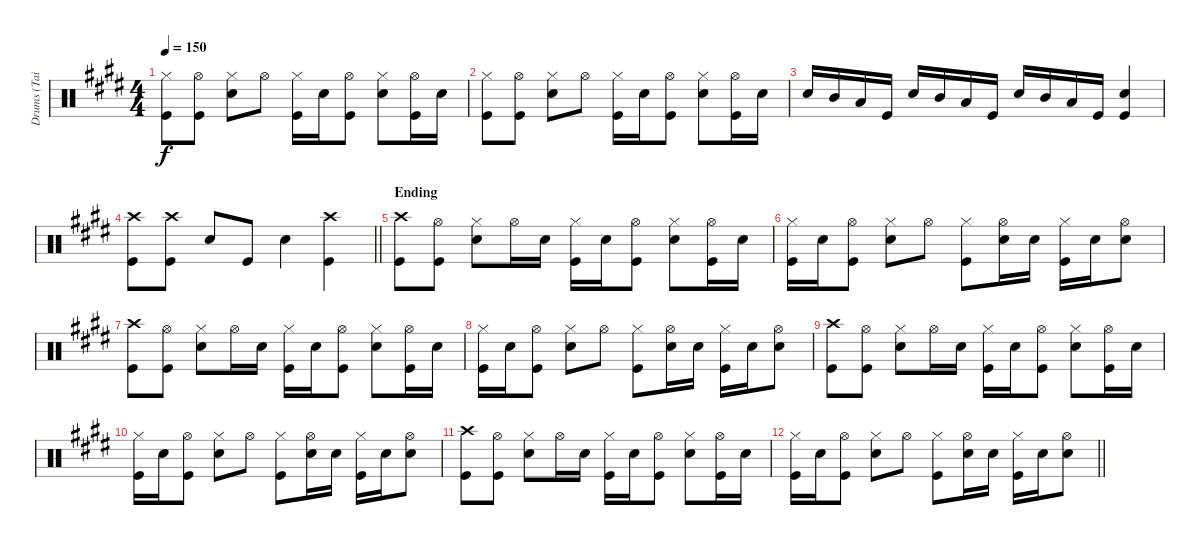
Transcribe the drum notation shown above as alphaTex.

\track ("Drums (Tainaka Ritsu)" "Drums (Tai") {instrument percussion}
\staff {score}
\articulation defaults
\ts (4 4)
\tempo 150
\clef neutral
\ks e
("Hi-Hat (closed)" "Kick (hit)").8{dy f} ("Hi-Hat (open)" "Kick (hit)").8 ("Hi-Hat (closed)" "Snare (hit) 2").8 "Hi-Hat (open)".8 ("Hi-Hat (closed)" "Kick (hit)").16 "Snare (hit) 2".16 ("Hi-Hat (open)" "Kick (hit)").8 ("Hi-Hat (closed)" "Snare (hit) 2").8 ("Hi-Hat (open)" "Kick (hit)").16 "Snare (hit) 2".16 |
("Hi-Hat (closed)" "Kick (hit)").8 ("Hi-Hat (open)" "Kick (hit)").8 ("Hi-Hat (closed)" "Snare (hit) 2").8 "Hi-Hat (open)".8 ("Hi-Hat (closed)" "Kick (hit)").16 "Snare (hit) 2".16 ("Hi-Hat (open)" "Kick (hit)").8 ("Hi-Hat (closed)" "Snare (hit) 2").8 ("Hi-Hat (open)" "Kick (hit)").16 "Snare (hit) 2".16 |
"Snare (hit) 2".16 "Mid Tom (hit)".16 "Low Tom (hit)".16 "Kick (hit)".16 "Snare (hit) 2".16 "Mid Tom (hit)".16 "Low Tom (hit)".16 "Kick (hit)".16 "Snare (hit) 2".16 "Mid Tom (hit)".16 "Low Tom (hit)".16 "Kick (hit)".16 ("Snare (hit) 2" "Kick (hit)").4 |
\barLineRight lightlight
("Crash high (hit)" "Kick (hit)").8 ("Crash high (hit)" "Kick (hit)").8 "Snare (hit) 2".8 "Kick (hit)".8 "Snare (hit) 2".4 ("Crash high (hit)" "Kick (hit)").4 |
\section ("" "Ending")
("Crash high (hit)" "Kick (hit)").8 ("Hi-Hat (open)" "Kick (hit)").8 ("Hi-Hat (closed)" "Snare (hit) 2").8 "Hi-Hat (open)".16 "Snare (hit) 2".16 ("Hi-Hat (closed)" "Kick (hit)").16 "Snare (hit) 2".16 ("Hi-Hat (open)" "Kick (hit)").8 ("Hi-Hat (closed)" "Snare (hit) 2").8 ("Hi-Hat (open)" "Kick (hit)").16 "Snare (hit) 2".16 |
("Hi-Hat (closed)" "Kick (hit)").16 "Snare (hit) 2".16 ("Hi-Hat (open)" "Kick (hit)").8 ("Hi-Hat (closed)" "Snare (hit) 2").8 "Hi-Hat (open)".8 ("Hi-Hat (closed)" "Kick (hit)").8 ("Hi-Hat (open)" "Snare (hit) 2").16 "Snare (hit) 2".16 ("Hi-Hat (closed)" "Kick (hit)").16 "Snare (hit) 2".16 ("Hi-Hat (open)" "Snare (hit) 2").8 |
("Crash high (hit)" "Kick (hit)").8 ("Hi-Hat (open)" "Kick (hit)").8 ("Hi-Hat (closed)" "Snare (hit) 2").8 "Hi-Hat (open)".16 "Snare (hit) 2".16 ("Hi-Hat (closed)" "Kick (hit)").16 "Snare (hit) 2".16 ("Hi-Hat (open)" "Kick (hit)").8 ("Hi-Hat (closed)" "Snare (hit) 2").8 ("Hi-Hat (open)" "Kick (hit)").16 "Snare (hit) 2".16 |
("Hi-Hat (closed)" "Kick (hit)").16 "Snare (hit) 2".16 ("Hi-Hat (open)" "Kick (hit)").8 ("Hi-Hat (closed)" "Snare (hit) 2").8 "Hi-Hat (open)".8 ("Hi-Hat (closed)" "Kick (hit)").8 ("Hi-Hat (open)" "Snare (hit) 2").16 "Snare (hit) 2".16 ("Hi-Hat (closed)" "Kick (hit)").16 "Snare (hit) 2".16 ("Hi-Hat (open)" "Snare (hit) 2").8 |
("Crash high (hit)" "Kick (hit)").8 ("Hi-Hat (open)" "Kick (hit)").8 ("Hi-Hat (closed)" "Snare (hit) 2").8 "Hi-Hat (open)".16 "Snare (hit) 2".16 ("Hi-Hat (closed)" "Kick (hit)").16 "Snare (hit) 2".16 ("Hi-Hat (open)" "Kick (hit)").8 ("Hi-Hat (closed)" "Snare (hit) 2").8 ("Hi-Hat (open)" "Kick (hit)").16 "Snare (hit) 2".16 |
("Hi-Hat (closed)" "Kick (hit)").16 "Snare (hit) 2".16 ("Hi-Hat (open)" "Kick (hit)").8 ("Hi-Hat (closed)" "Snare (hit) 2").8 "Hi-Hat (open)".8 ("Hi-Hat (closed)" "Kick (hit)").8 ("Hi-Hat (open)" "Snare (hit) 2").16 "Snare (hit) 2".16 ("Hi-Hat (closed)" "Kick (hit)").16 "Snare (hit) 2".16 ("Hi-Hat (open)" "Snare (hit) 2").8 |
("Crash high (hit)" "Kick (hit)").8 ("Hi-Hat (open)" "Kick (hit)").8 ("Hi-Hat (closed)" "Snare (hit) 2").8 "Hi-Hat (open)".16 "Snare (hit) 2".16 ("Hi-Hat (closed)" "Kick (hit)").16 "Snare (hit) 2".16 ("Hi-Hat (open)" "Kick (hit)").8 ("Hi-Hat (closed)" "Snare (hit) 2").8 ("Hi-Hat (open)" "Kick (hit)").16 "Snare (hit) 2".16 |
\barLineRight lightlight
("Hi-Hat (closed)" "Kick (hit)").16 "Snare (hit) 2".16 ("Hi-Hat (open)" "Kick (hit)").8 ("Hi-Hat (closed)" "Snare (hit) 2").8 "Hi-Hat (open)".8 ("Hi-Hat (closed)" "Kick (hit)").8 ("Hi-Hat (open)" "Snare (hit) 2").16 "Snare (hit) 2".16 ("Hi-Hat (closed)" "Kick (hit)").16 "Snare (hit) 2".16 ("Hi-Hat (open)" "Snare (hit) 2").8
